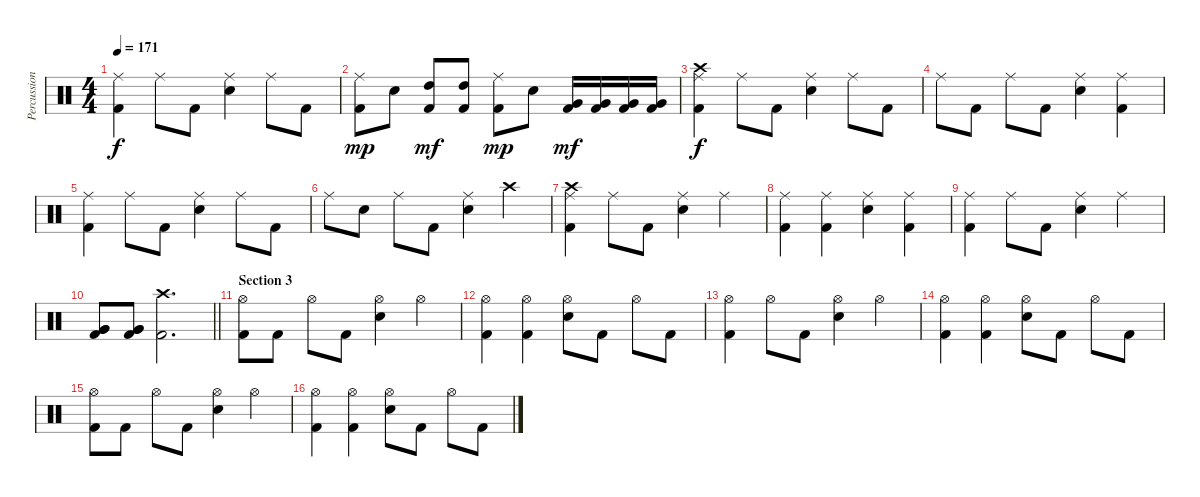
\track ("Percussion" "Percussion") {instrument percussion}
\staff {score}
\articulation defaults
\ts (4 4)
\tempo 171
\clef neutral
\ks c
("Ride (middle)" "Kick (hit) 2").4{dy f} "Ride (middle)".8 "Kick (hit) 2".8 ("Ride (middle)" "Snare (hit) 2").4 "Ride (middle)".8 "Kick (hit) 2".8 |
("Ride (middle)" "Kick (hit) 2").8{dy mp} "Snare (hit) 2".8 ("High Tom (hit)" "Kick (hit) 2").8{dy mf} ("High Tom (hit)" "Kick (hit) 2").8 ("Ride (middle)" "Kick (hit) 2").8{dy mp} "Snare (hit) 2".8 ("Very Low Tom (hit)" "Kick (hit) 2").16{dy mf} ("Very Low Tom (hit)" "Kick (hit) 2").16 ("Very Low Tom (hit)" "Kick (hit) 2").16 ("Very Low Tom (hit)" "Kick (hit) 2").16 |
("Ride (middle)" "Crash high (hit)" "Kick (hit) 2").4{dy f} "Ride (middle)".8 "Kick (hit) 2".8 ("Ride (middle)" "Snare (hit) 2").4 "Ride (middle)".8 "Kick (hit) 2".8 |
"Ride (middle)".8 "Kick (hit) 2".8 "Ride (middle)".8 "Kick (hit) 2".8 ("Ride (middle)" "Snare (hit) 2").4 ("Ride (middle)" "Kick (hit) 2").4 |
("Ride (middle)" "Kick (hit) 2").4 "Ride (middle)".8 "Kick (hit) 2".8 ("Ride (middle)" "Snare (hit) 2").4 "Ride (middle)".8 "Kick (hit) 2".8 |
"Ride (middle)".8 "Snare (hit) 2".8 "Ride (middle)".8 "Kick (hit) 2".8 ("Ride (middle)" "Snare (hit) 2").4 "Crash high (hit)".4 |
("Ride (middle)" "Crash high (hit)" "Kick (hit) 2").4 "Ride (middle)".8 "Kick (hit) 2".8 ("Ride (middle)" "Snare (hit) 2").4 "Ride (middle)".4 |
("Ride (middle)" "Kick (hit) 2").4 ("Ride (middle)" "Kick (hit) 2").4 ("Ride (middle)" "Snare (hit) 2").4 ("Ride (middle)" "Kick (hit) 2").4 |
("Ride (middle)" "Kick (hit) 2").4 "Ride (middle)".8 "Kick (hit) 2".8 ("Ride (middle)" "Snare (hit) 2").4 "Ride (middle)".4 |
\barLineRight lightlight
("Very Low Tom (hit)" "Very Low Tom (hit)" "Kick (hit) 2").8 ("Very Low Tom (hit)" "Very Low Tom (hit)" "Kick (hit) 2").8 ("Crash high (hit)" "Kick (hit) 2").2{d} |
\section ("" "Section 3")
("Hi-Hat (open)" "Kick (hit) 2").8 "Kick (hit) 2".8 "Hi-Hat (open)".8 "Kick (hit) 2".8 ("Hi-Hat (open)" "Snare (hit) 2").4 "Hi-Hat (open)".4 |
("Hi-Hat (open)" "Kick (hit) 2").4 ("Hi-Hat (open)" "Kick (hit) 2").4 ("Hi-Hat (open)" "Snare (hit) 2").8 "Kick (hit) 2".8 "Hi-Hat (open)".8 "Kick (hit) 2".8 |
("Hi-Hat (open)" "Kick (hit) 2").4 "Hi-Hat (open)".8 "Kick (hit) 2".8 ("Hi-Hat (open)" "Snare (hit) 2").4 "Hi-Hat (open)".4 |
("Hi-Hat (open)" "Kick (hit) 2").4 ("Hi-Hat (open)" "Kick (hit) 2").4 ("Hi-Hat (open)" "Snare (hit) 2").8 "Kick (hit) 2".8 "Hi-Hat (open)".8 "Kick (hit) 2".8 |
("Hi-Hat (open)" "Kick (hit) 2").8 "Kick (hit) 2".8 "Hi-Hat (open)".8 "Kick (hit) 2".8 ("Hi-Hat (open)" "Snare (hit) 2").4 "Hi-Hat (open)".4 |
("Hi-Hat (open)" "Kick (hit) 2").4 ("Hi-Hat (open)" "Kick (hit) 2").4 ("Hi-Hat (open)" "Snare (hit) 2").8 "Kick (hit) 2".8 "Hi-Hat (open)".8 "Kick (hit) 2".8
